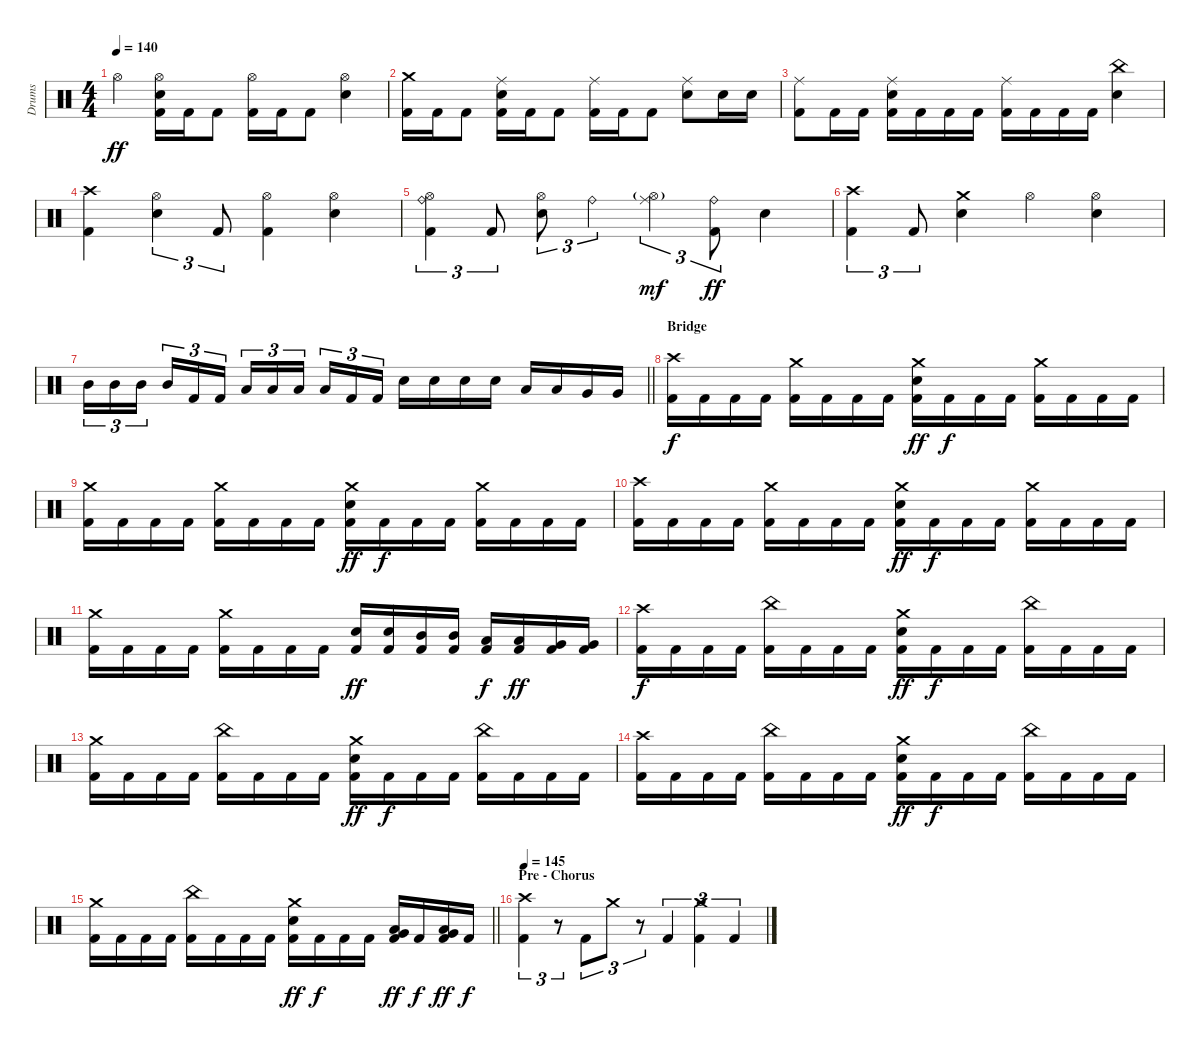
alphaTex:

\track ("Drums" "Drums") {instrument percussion}
\staff {score}
\articulation defaults
\ts (4 4)
\tempo 140
\clef neutral
\ks c "Hi-Hat (open)".4{dy ff}
("Hi-Hat (open)" "Electric Snare (hit)" "Kick (hit) 2").16 "Kick (hit) 2".16 "Kick (hit) 2".8 ("Hi-Hat (open)" "Kick (hit) 2").16 "Kick (hit) 2".16 "Kick (hit) 2".8 ("Hi-Hat (open)" "Electric Snare (hit)").4 |
("Crash medium (hit)" "Kick (hit) 2").16 "Kick (hit) 2".16 "Kick (hit) 2".8 ("Ride (middle)" "Electric Snare (hit)" "Kick (hit) 2").16 "Kick (hit) 2".16 "Kick (hit) 2".8 ("Ride (middle)" "Kick (hit) 2").16 "Kick (hit) 2".16 "Kick (hit) 2".8 ("Ride (middle)" "Electric Snare (hit)").8 "Electric Snare (hit)".16 "Electric Snare (hit)".16 |
("Ride (middle)" "Kick (hit) 2").8 "Kick (hit) 2".16 "Kick (hit) 2".16 ("Ride (middle)" "Electric Snare (hit)" "Kick (hit) 2").16 "Kick (hit) 2".16 "Kick (hit) 2".16 "Kick (hit) 2".16 ("Ride (middle)" "Kick (hit) 2").16 "Kick (hit) 2".16 "Kick (hit) 2".16 "Kick (hit) 2".16 ("China (hit)" "Electric Snare (hit)").4 |
("Crash high (hit)" "Kick (hit) 2").4 ("Hi-Hat (open)" "Electric Snare (hit)").4{tu (3 2)} "Kick (hit) 2".8{tu (3 2)} ("Hi-Hat (open)" "Kick (hit) 2").4 ("Hi-Hat (open)" "Electric Snare (hit)").4 |
("Ride (bell)" "Hi-Hat (open)" "Kick (hit) 2").4{tu (3 2)} "Kick (hit) 2".8{tu (3 2)} ("Hi-Hat (open)" "Electric Snare (hit)").8{tu (3 2)} "Ride (bell)".4{tu (3 2)} ("Ride (middle)" "Hi-Hat (open)"{g}).4{tu (3 2) dy mf} ("Ride (bell)" "Kick (hit) 2").8{tu (3 2) dy ff} "Electric Snare (hit)".4 |
("Crash high (hit)" "Kick (hit) 2").4{tu (3 2)} "Kick (hit) 2".8{tu (3 2)} ("Crash medium (hit)" "Electric Snare (hit)").4 "Hi-Hat (open)".4 ("Hi-Hat (open)" "Electric Snare (hit)").4 |
\barLineRight lightlight "Mid Tom (hit)".16{tu (3 2)} "Mid Tom (hit)".16{tu (3 2)} "Mid Tom (hit)".16{tu (3 2) beam splitsecondary} "Mid Tom (hit)".16{tu (3 2)} "Kick (hit) 2".16{tu (3 2)} "Kick (hit) 2".16{tu (3 2)} "Low Tom (hit)".16{tu (3 2)} "Low Tom (hit)".16{tu (3 2)} "Low Tom (hit)".16{tu (3 2) beam splitsecondary} "Low Tom (hit)".16{tu (3 2)} "Kick (hit) 2".16{tu (3 2)} "Kick (hit) 2".16{tu (3 2)} "Electric Snare (hit)".16 "Electric Snare (hit)".16 "Electric Snare (hit)".16 "Electric Snare (hit)".16 "Low Tom (hit)".16 "Low Tom (hit)".16 "Very Low Tom (hit)".16 "Very Low Tom (hit)".16
|
\section ("" "Bridge")
("Crash high (hit)" "Kick (hit) 2").16{dy f} "Kick (hit) 2".16 "Kick (hit) 2".16 "Kick (hit) 2".16 ("Crash medium (hit)" "Kick (hit) 2").16 "Kick (hit) 2".16 "Kick (hit) 2".16 "Kick (hit) 2".16 ("Crash medium (hit)" "Electric Snare (hit)" "Kick (hit) 2").16{dy ff} "Kick (hit) 2".16{dy f} "Kick (hit) 2".16 "Kick (hit) 2".16 ("Crash medium (hit)" "Kick (hit) 2").16 "Kick (hit) 2".16 "Kick (hit) 2".16 "Kick (hit) 2".16 |
("Crash medium (hit)" "Kick (hit) 2").16 "Kick (hit) 2".16 "Kick (hit) 2".16 "Kick (hit) 2".16 ("Crash medium (hit)" "Kick (hit) 2").16 "Kick (hit) 2".16 "Kick (hit) 2".16 "Kick (hit) 2".16 ("Crash medium (hit)" "Electric Snare (hit)" "Kick (hit) 2").16{dy ff} "Kick (hit) 2".16{dy f} "Kick (hit) 2".16 "Kick (hit) 2".16 ("Crash medium (hit)" "Kick (hit) 2").16 "Kick (hit) 2".16 "Kick (hit) 2".16 "Kick (hit) 2".16 |
("Crash high (hit)" "Kick (hit) 2").16 "Kick (hit) 2".16 "Kick (hit) 2".16 "Kick (hit) 2".16 ("Crash medium (hit)" "Kick (hit) 2").16 "Kick (hit) 2".16 "Kick (hit) 2".16 "Kick (hit) 2".16 ("Crash medium (hit)" "Electric Snare (hit)" "Kick (hit) 2").16{dy ff} "Kick (hit) 2".16{dy f} "Kick (hit) 2".16 "Kick (hit) 2".16 ("Crash medium (hit)" "Kick (hit) 2").16 "Kick (hit) 2".16 "Kick (hit) 2".16 "Kick (hit) 2".16 |
("Crash medium (hit)" "Kick (hit) 2").16 "Kick (hit) 2".16 "Kick (hit) 2".16 "Kick (hit) 2".16 ("Crash medium (hit)" "Kick (hit) 2").16 "Kick (hit) 2".16 "Kick (hit) 2".16 "Kick (hit) 2".16 ("Electric Snare (hit)" "Kick (hit) 2").16{dy ff} ("Electric Snare (hit)" "Kick (hit) 2").16 ("Mid Tom (hit)" "Kick (hit) 2").16 ("Mid Tom (hit)" "Kick (hit) 2").16 ("Low Tom (hit)" "Kick (hit) 2").16{dy f} ("Low Tom (hit)" "Kick (hit) 2").16{dy ff} ("Very Low Tom (hit)" "Kick (hit) 2").16 ("Very Low Tom (hit)" "Kick (hit) 2").16 |
("Crash high (hit)" "Kick (hit) 2").16{dy f} "Kick (hit) 2".16 "Kick (hit) 2".16 "Kick (hit) 2".16 ("China (hit)" "Kick (hit) 2").16 "Kick (hit) 2".16 "Kick (hit) 2".16 "Kick (hit) 2".16 ("Crash medium (hit)" "Electric Snare (hit)" "Kick (hit) 2").16{dy ff} "Kick (hit) 2".16{dy f} "Kick (hit) 2".16 "Kick (hit) 2".16 ("China (hit)" "Kick (hit) 2").16 "Kick (hit) 2".16 "Kick (hit) 2".16 "Kick (hit) 2".16 |
("Crash medium (hit)" "Kick (hit) 2").16 "Kick (hit) 2".16 "Kick (hit) 2".16 "Kick (hit) 2".16 ("China (hit)" "Kick (hit) 2").16 "Kick (hit) 2".16 "Kick (hit) 2".16 "Kick (hit) 2".16 ("Crash medium (hit)" "Electric Snare (hit)" "Kick (hit) 2").16{dy ff} "Kick (hit) 2".16{dy f} "Kick (hit) 2".16 "Kick (hit) 2".16 ("China (hit)" "Kick (hit) 2").16 "Kick (hit) 2".16 "Kick (hit) 2".16 "Kick (hit) 2".16 |
("Crash high (hit)" "Kick (hit) 2").16 "Kick (hit) 2".16 "Kick (hit) 2".16 "Kick (hit) 2".16 ("China (hit)" "Kick (hit) 2").16 "Kick (hit) 2".16 "Kick (hit) 2".16 "Kick (hit) 2".16 ("Crash medium (hit)" "Electric Snare (hit)" "Kick (hit) 2").16{dy ff} "Kick (hit) 2".16{dy f} "Kick (hit) 2".16 "Kick (hit) 2".16 ("China (hit)" "Kick (hit) 2").16 "Kick (hit) 2".16 "Kick (hit) 2".16 "Kick (hit) 2".16 |
\barLineRight lightlight
("Crash medium (hit)" "Kick (hit) 2").16 "Kick (hit) 2".16 "Kick (hit) 2".16 "Kick (hit) 2".16 ("China (hit)" "Kick (hit) 2").16 "Kick (hit) 2".16 "Kick (hit) 2".16 "Kick (hit) 2".16 ("Crash medium (hit)" "Electric Snare (hit)" "Kick (hit) 2").16{dy ff} "Kick (hit) 2".16{dy f} "Kick (hit) 2".16 "Kick (hit) 2".16 ("Low Tom (hit)" "Very Low Tom (hit)" "Kick (hit) 2").16{dy ff} "Kick (hit) 2".16{dy f} ("Very Low Tom (hit)" "Low Floor Tom (hit)" "Kick (hit) 2").16{dy ff} "Kick (hit) 2".16{dy f} |
\section ("" "Pre - Chorus")
\tempo 145
("Crash high (hit)" "Kick (hit) 2").4{tu (3 2)} r.8{tu (3 2)} "Kick (hit) 2".8{tu (3 2)} "Crash medium (hit)".8{tu (3 2)} r.8{tu (3 2)} "Kick (hit) 2".4{tu (3 2)} ("Crash medium (hit)" "Kick (hit) 2").4{tu (3 2)} "Kick (hit) 2".4{tu (3 2)}
